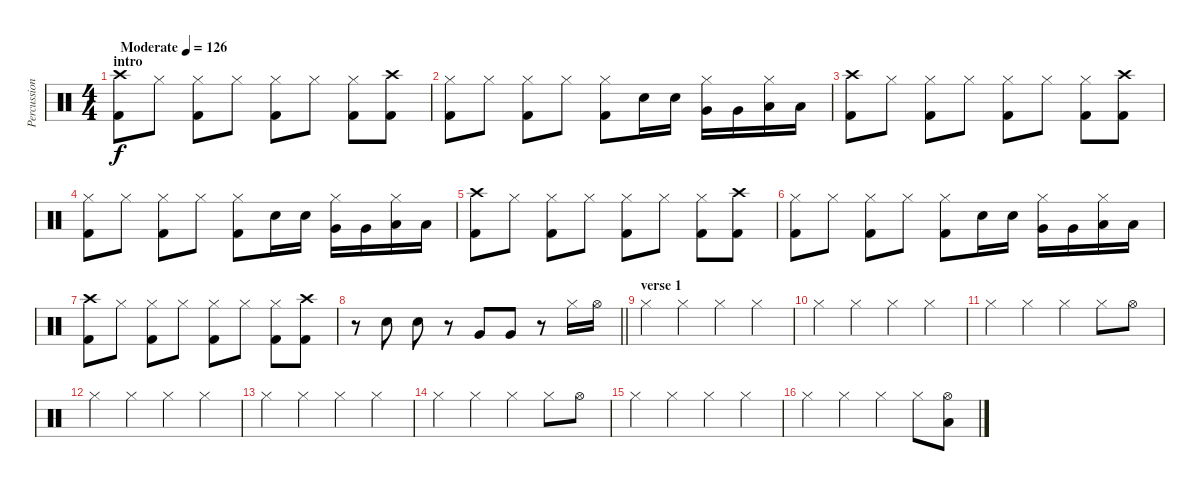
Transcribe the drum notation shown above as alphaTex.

\track ("Percussion" "Percussion") {instrument percussion}
\staff {score}
\articulation defaults
\ts (4 4)
\section ("" "intro")
\tempo (126 "Moderate")
\clef neutral
\ks c
("Crash high (hit)" "Kick (hit) 2").8{dy f} "Hi-Hat (closed)".8 ("Hi-Hat (closed)" "Kick (hit) 2").8 "Hi-Hat (closed)".8 ("Hi-Hat (closed)" "Kick (hit) 2").8 "Hi-Hat (closed)".8 ("Hi-Hat (closed)" "Kick (hit) 2").8 ("Crash high (hit)" "Kick (hit) 2").8 |
("Hi-Hat (closed)" "Kick (hit) 2").8 "Hi-Hat (closed)".8 ("Hi-Hat (closed)" "Kick (hit) 2").8 "Hi-Hat (closed)".8 ("Hi-Hat (closed)" "Kick (hit) 2").8 "Electric Snare (hit)".16 "Electric Snare (hit)".16 ("Very Low Tom (hit)" "Hi-Hat (closed)").16 "Very Low Tom (hit)".16 ("Low Floor Tom (hit)" "Hi-Hat (closed)").16 "Low Floor Tom (hit)".16 |
("Crash high (hit)" "Kick (hit) 2").8 "Hi-Hat (closed)".8 ("Hi-Hat (closed)" "Kick (hit) 2").8 "Hi-Hat (closed)".8 ("Hi-Hat (closed)" "Kick (hit) 2").8 "Hi-Hat (closed)".8 ("Hi-Hat (closed)" "Kick (hit) 2").8 ("Crash high (hit)" "Kick (hit) 2").8 |
("Hi-Hat (closed)" "Kick (hit) 2").8 "Hi-Hat (closed)".8 ("Hi-Hat (closed)" "Kick (hit) 2").8 "Hi-Hat (closed)".8 ("Hi-Hat (closed)" "Kick (hit) 2").8 "Electric Snare (hit)".16 "Electric Snare (hit)".16 ("Very Low Tom (hit)" "Hi-Hat (closed)").16 "Very Low Tom (hit)".16 ("Low Floor Tom (hit)" "Hi-Hat (closed)").16 "Low Floor Tom (hit)".16 |
("Crash high (hit)" "Kick (hit) 2").8 "Hi-Hat (closed)".8 ("Hi-Hat (closed)" "Kick (hit) 2").8 "Hi-Hat (closed)".8 ("Hi-Hat (closed)" "Kick (hit) 2").8 "Hi-Hat (closed)".8 ("Hi-Hat (closed)" "Kick (hit) 2").8 ("Crash high (hit)" "Kick (hit) 2").8 |
("Hi-Hat (closed)" "Kick (hit) 2").8 "Hi-Hat (closed)".8 ("Hi-Hat (closed)" "Kick (hit) 2").8 "Hi-Hat (closed)".8 ("Hi-Hat (closed)" "Kick (hit) 2").8 "Electric Snare (hit)".16 "Electric Snare (hit)".16 ("Very Low Tom (hit)" "Hi-Hat (closed)").16 "Very Low Tom (hit)".16 ("Low Floor Tom (hit)" "Hi-Hat (closed)").16 "Low Floor Tom (hit)".16 |
("Crash high (hit)" "Kick (hit) 2").8 "Hi-Hat (closed)".8 ("Hi-Hat (closed)" "Kick (hit) 2").8 "Hi-Hat (closed)".8 ("Hi-Hat (closed)" "Kick (hit) 2").8 "Hi-Hat (closed)".8 ("Hi-Hat (closed)" "Kick (hit) 2").8 ("Crash high (hit)" "Kick (hit) 2").8 |
\barLineRight lightlight
r.8 "Electric Snare (hit)".8 "Electric Snare (hit)".8 r.8 "Very Low Tom (hit)".8 "Very Low Tom (hit)".8 r.8 "Hi-Hat (closed)".16 "Hi-Hat (open)".16 |
\section ("" "verse 1")
"Hi-Hat (closed)".4 "Hi-Hat (closed)".4 "Hi-Hat (closed)".4 "Hi-Hat (closed)".4 |
"Hi-Hat (closed)".4 "Hi-Hat (closed)".4 "Hi-Hat (closed)".4 "Hi-Hat (closed)".4 |
"Hi-Hat (closed)".4 "Hi-Hat (closed)".4 "Hi-Hat (closed)".4 "Hi-Hat (closed)".8 "Hi-Hat (open)".8 |
"Hi-Hat (closed)".4 "Hi-Hat (closed)".4 "Hi-Hat (closed)".4 "Hi-Hat (closed)".4 |
"Hi-Hat (closed)".4 "Hi-Hat (closed)".4 "Hi-Hat (closed)".4 "Hi-Hat (closed)".4 |
"Hi-Hat (closed)".4 "Hi-Hat (closed)".4 "Hi-Hat (closed)".4 "Hi-Hat (closed)".8 "Hi-Hat (open)".8 |
"Hi-Hat (closed)".4 "Hi-Hat (closed)".4 "Hi-Hat (closed)".4 "Hi-Hat (closed)".4 |
"Hi-Hat (closed)".4 "Hi-Hat (closed)".4 "Hi-Hat (closed)".4 "Hi-Hat (closed)".8 ("Hi-Hat (open)" "Low Floor Tom (hit)").8
